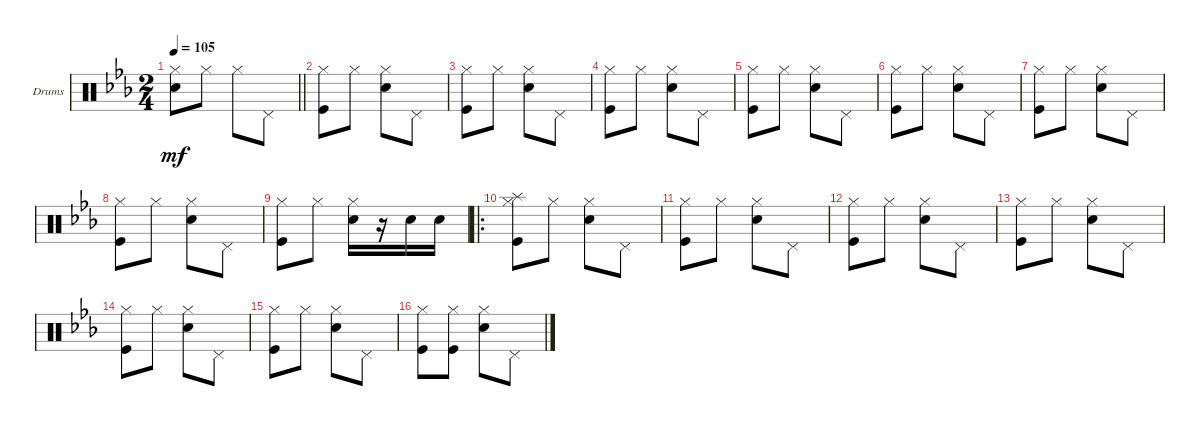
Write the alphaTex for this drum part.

\defaultSystemsLayout 4
\bracketExtendMode groupsimilarinstruments
\firstSystemTrackNameOrientation horizontal
\otherSystemsTrackNameOrientation horizontal
\track ("Drumkit" "Drums") {instrument percussion}
\staff {score}
\articulation defaults
\ts (2 4)
\tempo 105
\clef neutral
\scale
0.525424
\barLineRight lightlight
\ks cminor
("Hi-Hat (closed)" "Snare (hit) 2").8{dy mf} "Hi-Hat (closed)".8 "Hi-Hat (closed)".8 "Pedal Hi-Hat (hit)".8 |
\scale
0.237288 ("Hi-Hat (closed)" "Kick (hit)").8 "Hi-Hat (closed)".8 ("Hi-Hat (closed)" "Snare (hit) 2").8 "Pedal Hi-Hat (hit)".8 |
\scale
0.237288 ("Kick (hit)" "Hi-Hat (closed)").8 "Hi-Hat (closed)".8 ("Hi-Hat (closed)" "Snare (hit) 2").8 "Pedal Hi-Hat (hit)".8 |
\scale
0.333333 ("Kick (hit)" "Hi-Hat (closed)").8 "Hi-Hat (closed)".8 ("Hi-Hat (closed)" "Snare (hit) 2").8 "Pedal Hi-Hat (hit)".8 |
\scale
0.333333 ("Kick (hit)" "Hi-Hat (closed)").8 "Hi-Hat (closed)".8 ("Hi-Hat (closed)" "Snare (hit) 2").8 "Pedal Hi-Hat (hit)".8 |
\scale
0.333333 ("Kick (hit)" "Hi-Hat (closed)").8 "Hi-Hat (closed)".8 ("Hi-Hat (closed)" "Snare (hit) 2").8 "Pedal Hi-Hat (hit)".8 |
\scale
0.333333 ("Kick (hit)" "Hi-Hat (closed)").8 "Hi-Hat (closed)".8 ("Hi-Hat (closed)" "Snare (hit) 2").8 "Pedal Hi-Hat (hit)".8 |
\scale
0.333333 ("Kick (hit)" "Hi-Hat (closed)").8 "Hi-Hat (closed)".8 ("Hi-Hat (closed)" "Snare (hit) 2").8 "Pedal Hi-Hat (hit)".8 |
\scale
0.333333 ("Kick (hit)" "Hi-Hat (closed)").8 "Hi-Hat (closed)".8 ("Hi-Hat (closed)" "Snare (hit) 2").16 r.16 "Snare (hit) 2".16 "Snare (hit) 2".16 |
\ro
\scale
0.377778 ("Splash (hit)" "Hi-Hat (closed)" "Kick (hit)").8 "Hi-Hat (closed)".8 ("Hi-Hat (closed)" "Snare (hit) 2").8 "Pedal Hi-Hat (hit)".8 |
\scale
0.311111 ("Kick (hit)" "Hi-Hat (closed)").8 "Hi-Hat (closed)".8 ("Hi-Hat (closed)" "Snare (hit) 2").8 "Pedal Hi-Hat (hit)".8 |
\scale
0.311111 ("Kick (hit)" "Hi-Hat (closed)").8 "Hi-Hat (closed)".8 ("Snare (hit) 2" "Hi-Hat (closed)").8 "Pedal Hi-Hat (hit)".8 |
\scale
0.333333 ("Hi-Hat (closed)" "Kick (hit)").8 "Hi-Hat (closed)".8 ("Hi-Hat (closed)" "Snare (hit) 2").8 "Pedal Hi-Hat (hit)".8 |
\scale
0.333333 ("Kick (hit)" "Hi-Hat (closed)").8 "Hi-Hat (closed)".8 ("Snare (hit) 2" "Hi-Hat (closed)").8 "Pedal Hi-Hat (hit)".8 |
\scale
0.333333 ("Hi-Hat (closed)" "Kick (hit)").8 "Hi-Hat (closed)".8 ("Hi-Hat (closed)" "Snare (hit) 2").8 "Pedal Hi-Hat (hit)".8 |
("Kick (hit)" "Hi-Hat (closed)").8 ("Kick (hit)" "Hi-Hat (closed)").8 ("Snare (hit) 2" "Hi-Hat (closed)").8 "Pedal Hi-Hat (hit)".8
